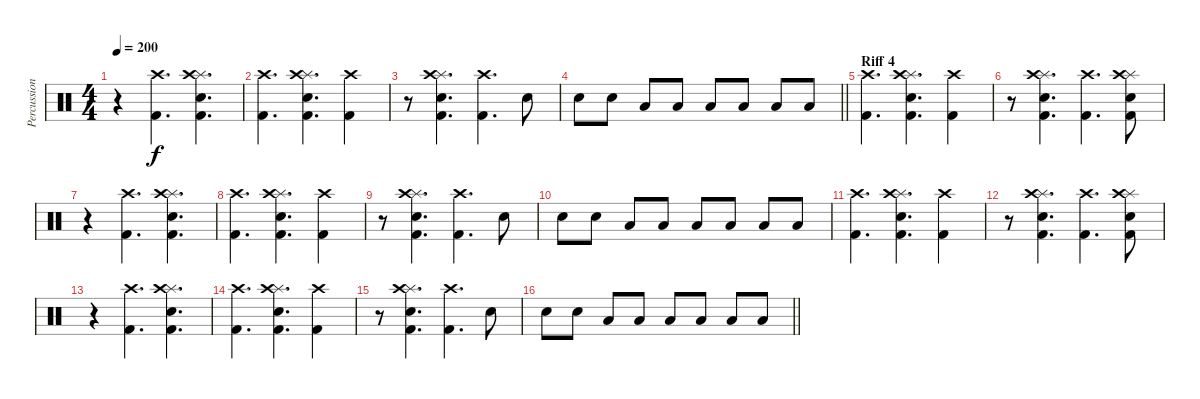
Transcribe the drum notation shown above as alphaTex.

\track ("Percussion" "Percussion") {instrument percussion}
\staff {score}
\articulation defaults
\ts (4 4)
\tempo 200
\clef neutral
\ks c
r.4{dy f} ("Crash high (hit)" "Kick (hit) 2").4{d} ("Splash (hit)" "Crash high (hit)" "Electric Snare (hit)" "Kick (hit) 2").4{d} |
("Crash high (hit)" "Kick (hit) 2").4{d} ("Splash (hit)" "Crash high (hit)" "Electric Snare (hit)" "Kick (hit) 2").4{d} ("Crash high (hit)" "Kick (hit) 2").4 |
r.8 ("Splash (hit)" "Crash high (hit)" "Electric Snare (hit)" "Kick (hit) 2").4{d} ("Crash high (hit)" "Kick (hit) 2").4{d} "Snare (hit) 2".8 |
\barLineRight lightlight "Snare (hit) 2".8 "Snare (hit) 2".8 "Low Tom (hit)".8 "Low Tom (hit)".8 "Low Tom (hit)".8 "Low Floor Tom (hit)".8 "Low Floor Tom (hit)".8 "Low Floor Tom (hit)".8
|
\section ("" "Riff 4")
("Crash high (hit)" "Kick (hit) 2").4{d} ("Splash (hit)" "Crash high (hit)" "Electric Snare (hit)" "Kick (hit) 2").4{d} ("Crash high (hit)" "Kick (hit) 2").4 |
r.8 ("Splash (hit)" "Crash high (hit)" "Electric Snare (hit)" "Kick (hit) 2").4{d} ("Crash high (hit)" "Kick (hit) 2").4{d} ("Splash (hit)" "Crash high (hit)" "Electric Snare (hit)" "Kick (hit) 2").8 |
r.4 ("Crash high (hit)" "Kick (hit) 2").4{d} ("Splash (hit)" "Crash high (hit)" "Electric Snare (hit)" "Kick (hit) 2").4{d} |
("Crash high (hit)" "Kick (hit) 2").4{d} ("Splash (hit)" "Crash high (hit)" "Electric Snare (hit)" "Kick (hit) 2").4{d} ("Crash high (hit)" "Kick (hit) 2").4 |
r.8 ("Splash (hit)" "Crash high (hit)" "Electric Snare (hit)" "Kick (hit) 2").4{d} ("Crash high (hit)" "Kick (hit) 2").4{d} "Snare (hit) 2".8 |
"Snare (hit) 2".8 "Snare (hit) 2".8 "Low Tom (hit)".8 "Low Tom (hit)".8 "Low Tom (hit)".8 "Low Floor Tom (hit)".8 "Low Floor Tom (hit)".8 "Low Floor Tom (hit)".8 |
("Crash high (hit)" "Kick (hit) 2").4{d} ("Splash (hit)" "Crash high (hit)" "Electric Snare (hit)" "Kick (hit) 2").4{d} ("Crash high (hit)" "Kick (hit) 2").4 |
r.8 ("Splash (hit)" "Crash high (hit)" "Electric Snare (hit)" "Kick (hit) 2").4{d} ("Crash high (hit)" "Kick (hit) 2").4{d} ("Splash (hit)" "Crash high (hit)" "Electric Snare (hit)" "Kick (hit) 2").8 |
r.4 ("Crash high (hit)" "Kick (hit) 2").4{d} ("Splash (hit)" "Crash high (hit)" "Electric Snare (hit)" "Kick (hit) 2").4{d} |
("Crash high (hit)" "Kick (hit) 2").4{d} ("Splash (hit)" "Crash high (hit)" "Electric Snare (hit)" "Kick (hit) 2").4{d} ("Crash high (hit)" "Kick (hit) 2").4 |
r.8 ("Splash (hit)" "Crash high (hit)" "Electric Snare (hit)" "Kick (hit) 2").4{d} ("Crash high (hit)" "Kick (hit) 2").4{d} "Snare (hit) 2".8 |
\barLineRight lightlight "Snare (hit) 2".8 "Snare (hit) 2".8 "Low Tom (hit)".8 "Low Tom (hit)".8 "Low Tom (hit)".8 "Low Floor Tom (hit)".8 "Low Floor Tom (hit)".8 "Low Floor Tom (hit)".8
